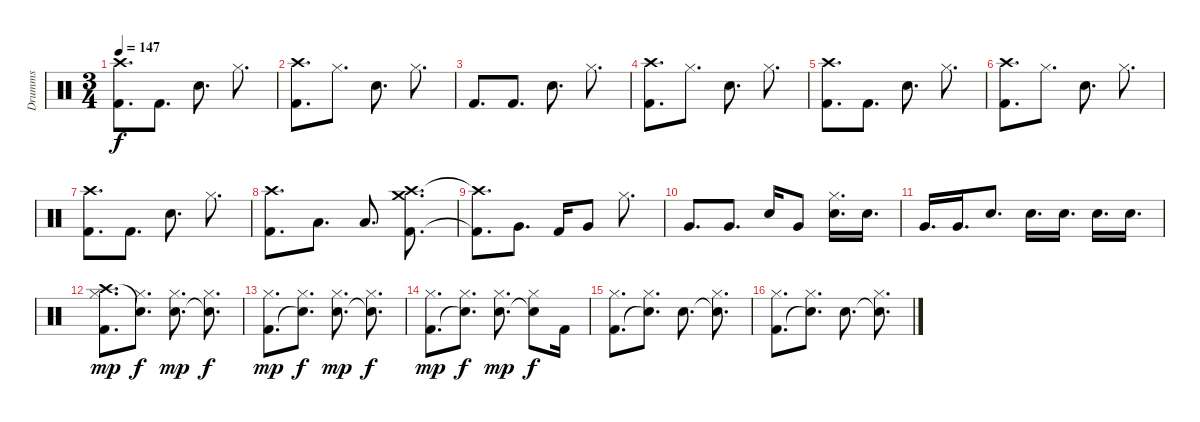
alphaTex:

\track ("Drumms" "Drumms") {instrument percussion}
\staff {score}
\articulation defaults
\ts (3 4)
\tempo 147
\clef neutral
\ks c
("Crash high (hit)" "Kick (hit) 2").8{d dy f} "Kick (hit) 2".8{d} "Electric Snare (hit)".8{d} "Hi-Hat (closed)".8{d} |
("Crash high (hit)" "Kick (hit) 2").8{d} "Hi-Hat (closed)".8{d} "Electric Snare (hit)".8{d} "Hi-Hat (closed)".8{d} |
"Kick (hit) 2".8{d} "Kick (hit) 2".8{d} "Electric Snare (hit)".8{d} "Hi-Hat (closed)".8{d} |
("Crash high (hit)" "Kick (hit) 2").8{d} "Hi-Hat (closed)".8{d} "Electric Snare (hit)".8{d} "Hi-Hat (closed)".8{d} |
("Crash high (hit)" "Kick (hit) 2").8{d} "Kick (hit) 2".8{d} "Electric Snare (hit)".8{d} "Hi-Hat (closed)".8{d} |
("Crash high (hit)" "Kick (hit) 2").8{d} "Hi-Hat (closed)".8{d} "Electric Snare (hit)".8{d} "Hi-Hat (closed)".8{d} |
("Crash high (hit)" "Kick (hit) 2").8{d} "Kick (hit) 2".8{d} "Electric Snare (hit)".8{d} "Hi-Hat (closed)".8{d} |
("Crash high (hit)" "Kick (hit) 2").8{d} "Low Tom (hit)".8{d} "Low Tom (hit)".8{d} ("Crash high (hit)" "Kick (hit) 2" "Crash medium (hit)").8{d} |
("Crash high (hit)"{t} "Kick (hit) 2"{t}).8{d} "Very Low Tom (hit)".8{d} "Kick (hit) 2".16 "Very Low Tom (hit)".8 "Hi-Hat (closed)".8{d} |
"Very Low Tom (hit)".8{d} "Very Low Tom (hit)".8{d} "Electric Snare (hit)".16 "Very Low Tom (hit)".8 ("Electric Snare (hit)" "Hi-Hat (closed)").16{d} "Electric Snare (hit)".16{d} |
"Very Low Tom (hit)".16{d} "Very Low Tom (hit)".16{d} "Electric Snare (hit)".8{d} "Electric Snare (hit)".16{d} "Electric Snare (hit)".16{d} "Electric Snare (hit)".16{d} "Electric Snare (hit)".16{d} |
\section ("" "")
("Crash high (hit)" "Kick (hit) 2" "Hi-Hat (closed)").8{d dy mp} ("Snare (hit)"{t} "Hi-Hat (closed)").8{d dy f} ("Electric Snare (hit)" "Hi-Hat (closed)").8{d dy mp} ("Snare (hit)"{t} "Hi-Hat (closed)").8{d dy f} |
("Kick (hit) 2" "Hi-Hat (closed)").8{d dy mp} ("Snare (hit)"{t} "Hi-Hat (closed)").8{d dy f} ("Electric Snare (hit)" "Hi-Hat (closed)").8{d dy mp} ("Snare (hit)"{t} "Hi-Hat (closed)").8{d dy f} |
("Kick (hit) 2" "Hi-Hat (closed)").8{d dy mp} ("Snare (hit)"{t} "Hi-Hat (closed)").8{d dy f} ("Electric Snare (hit)" "Hi-Hat (closed)").8{d dy mp} ("Snare (hit)"{t} "Hi-Hat (closed)").8{dy f} "Kick (hit) 2".16 |
("Kick (hit) 2" "Hi-Hat (closed)").8{d} ("Snare (hit)"{t} "Hi-Hat (closed)").8{d} "Electric Snare (hit)".8{d} ("Snare (hit)"{t} "Hi-Hat (closed)").8{d} |
("Kick (hit) 2" "Hi-Hat (closed)").8{d} ("Snare (hit)"{t} "Hi-Hat (closed)").8{d} "Electric Snare (hit)".8{d} ("Snare (hit)"{t} "Hi-Hat (closed)").8{d}
